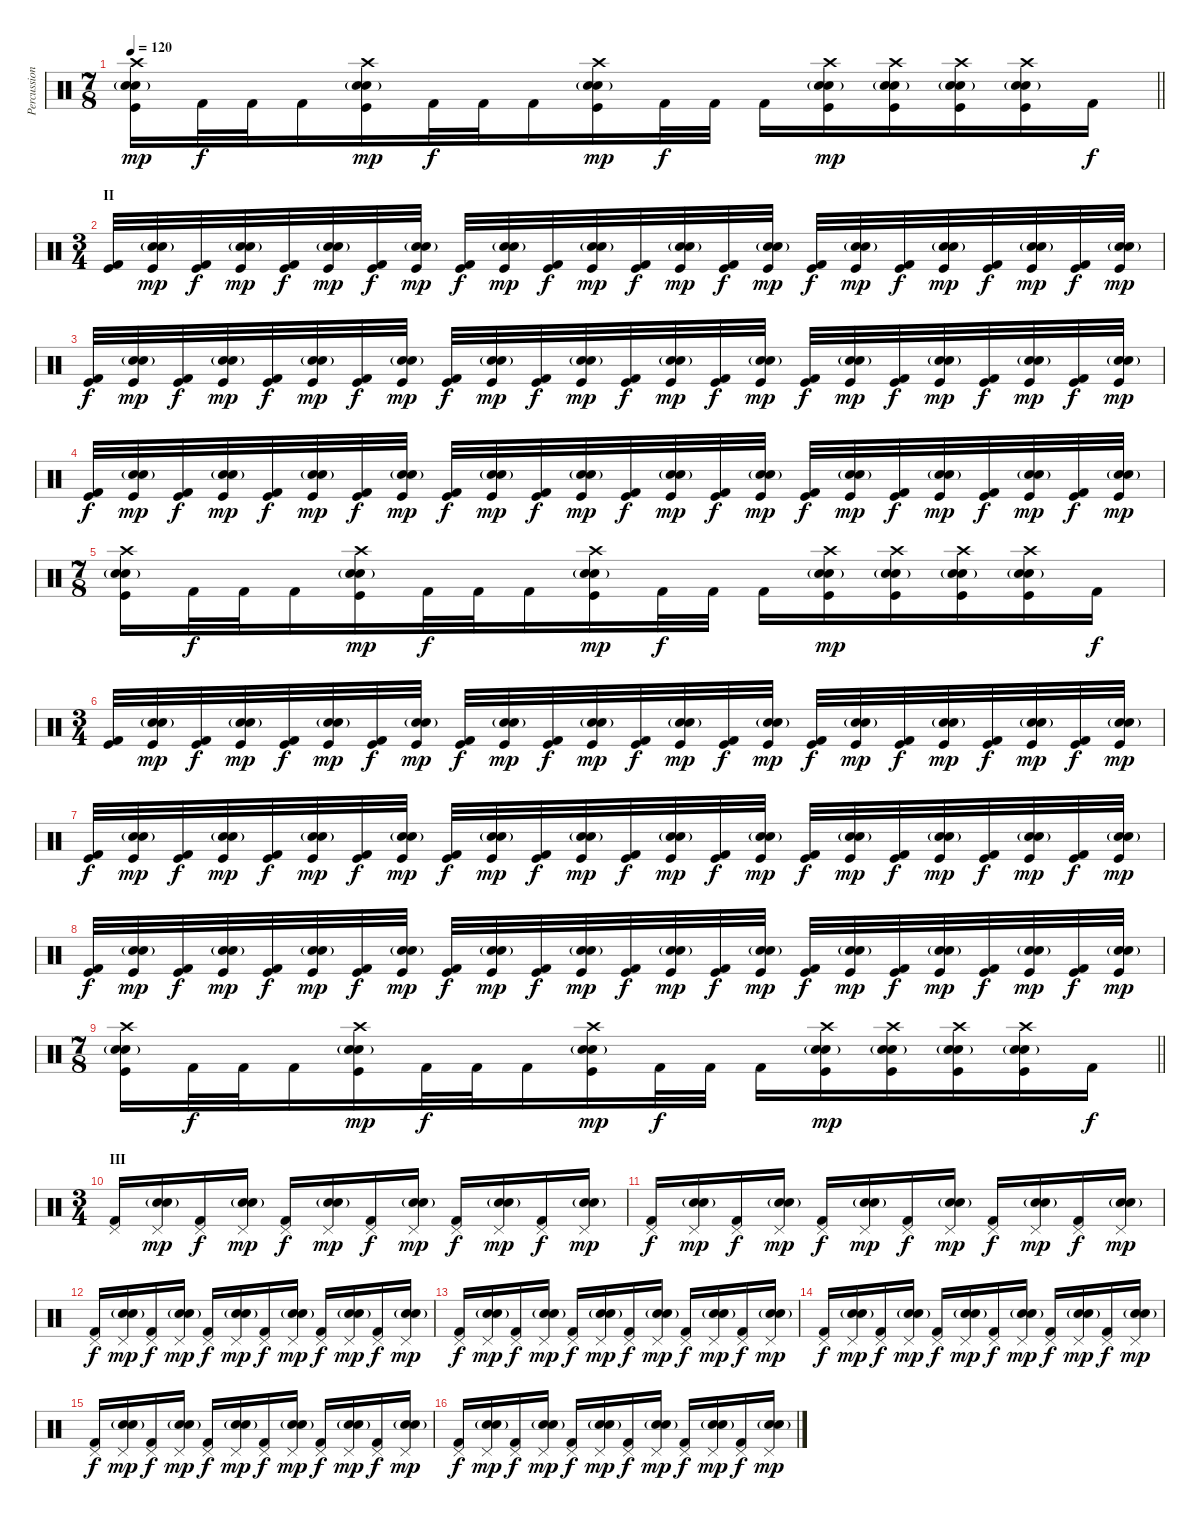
\track ("Percussion" "Percussion") {instrument percussion}
\staff {score}
\articulation defaults
\ts (7 8)
\tempo 120
\clef neutral
\barLineRight lightlight
\ks c
("Crash high (hit)" "Electric Snare (hit)" "Snare (hit) 2"{g} "Kick (hit)").16{dy mp} "Kick (hit) 2".32{dy f} "Kick (hit) 2".32 "Kick (hit) 2".16 ("Crash high (hit)" "Electric Snare (hit)" "Snare (hit) 2"{g} "Kick (hit)").16{dy mp} "Kick (hit) 2".32{dy f} "Kick (hit) 2".32 "Kick (hit) 2".16 ("Crash high (hit)" "Electric Snare (hit)" "Snare (hit) 2"{g} "Kick (hit)").16{dy mp} "Kick (hit) 2".32{dy f} "Kick (hit) 2".32 "Kick (hit) 2".16 ("Crash high (hit)" "Electric Snare (hit)" "Snare (hit) 2"{g} "Kick (hit)").16{dy mp} ("Crash high (hit)" "Electric Snare (hit)" "Snare (hit) 2"{g} "Kick (hit)").16 ("Crash high (hit)" "Electric Snare (hit)" "Snare (hit) 2"{g} "Kick (hit)").16 ("Crash high (hit)" "Electric Snare (hit)" "Snare (hit) 2"{g} "Kick (hit)").16 "Kick (hit) 2".16{dy f} |
\ts (3 4)
\section ("" "II")
("Kick (hit) 2" "Kick (hit)").32 ("Electric Snare (hit)" "Snare (hit) 2"{g} "Kick (hit)").32{dy mp} ("Kick (hit) 2" "Kick (hit)").32{dy f} ("Electric Snare (hit)" "Snare (hit) 2"{g} "Kick (hit)").32{dy mp} ("Kick (hit) 2" "Kick (hit)").32{dy f} ("Electric Snare (hit)" "Snare (hit) 2"{g} "Kick (hit)").32{dy mp} ("Kick (hit) 2" "Kick (hit)").32{dy f} ("Electric Snare (hit)" "Snare (hit) 2"{g} "Kick (hit)").32{dy mp} ("Kick (hit) 2" "Kick (hit)").32{dy f} ("Electric Snare (hit)" "Snare (hit) 2"{g} "Kick (hit)").32{dy mp} ("Kick (hit) 2" "Kick (hit)").32{dy f} ("Electric Snare (hit)" "Snare (hit) 2"{g} "Kick (hit)").32{dy mp} ("Kick (hit) 2" "Kick (hit)").32{dy f} ("Electric Snare (hit)" "Snare (hit) 2"{g} "Kick (hit)").32{dy mp} ("Kick (hit) 2" "Kick (hit)").32{dy f} ("Electric Snare (hit)" "Snare (hit) 2"{g} "Kick (hit)").32{dy mp} ("Kick (hit) 2" "Kick (hit)").32{dy f} ("Electric Snare (hit)" "Snare (hit) 2"{g} "Kick (hit)").32{dy mp} ("Kick (hit) 2" "Kick (hit)").32{dy f} ("Electric Snare (hit)" "Snare (hit) 2"{g} "Kick (hit)").32{dy mp} ("Kick (hit) 2" "Kick (hit)").32{dy f} ("Electric Snare (hit)" "Snare (hit) 2"{g} "Kick (hit)").32{dy mp} ("Kick (hit) 2" "Kick (hit)").32{dy f} ("Electric Snare (hit)" "Snare (hit) 2"{g} "Kick (hit)").32{dy mp} |
("Kick (hit) 2" "Kick (hit)").32{dy f} ("Electric Snare (hit)" "Snare (hit) 2"{g} "Kick (hit)").32{dy mp} ("Kick (hit) 2" "Kick (hit)").32{dy f} ("Electric Snare (hit)" "Snare (hit) 2"{g} "Kick (hit)").32{dy mp} ("Kick (hit) 2" "Kick (hit)").32{dy f} ("Electric Snare (hit)" "Snare (hit) 2"{g} "Kick (hit)").32{dy mp} ("Kick (hit) 2" "Kick (hit)").32{dy f} ("Electric Snare (hit)" "Snare (hit) 2"{g} "Kick (hit)").32{dy mp} ("Kick (hit) 2" "Kick (hit)").32{dy f} ("Electric Snare (hit)" "Snare (hit) 2"{g} "Kick (hit)").32{dy mp} ("Kick (hit) 2" "Kick (hit)").32{dy f} ("Electric Snare (hit)" "Snare (hit) 2"{g} "Kick (hit)").32{dy mp} ("Kick (hit) 2" "Kick (hit)").32{dy f} ("Electric Snare (hit)" "Snare (hit) 2"{g} "Kick (hit)").32{dy mp} ("Kick (hit) 2" "Kick (hit)").32{dy f} ("Electric Snare (hit)" "Snare (hit) 2"{g} "Kick (hit)").32{dy mp} ("Kick (hit) 2" "Kick (hit)").32{dy f} ("Electric Snare (hit)" "Snare (hit) 2"{g} "Kick (hit)").32{dy mp} ("Kick (hit) 2" "Kick (hit)").32{dy f} ("Electric Snare (hit)" "Snare (hit) 2"{g} "Kick (hit)").32{dy mp} ("Kick (hit) 2" "Kick (hit)").32{dy f} ("Electric Snare (hit)" "Snare (hit) 2"{g} "Kick (hit)").32{dy mp} ("Kick (hit) 2" "Kick (hit)").32{dy f} ("Electric Snare (hit)" "Snare (hit) 2"{g} "Kick (hit)").32{dy mp} |
("Kick (hit) 2" "Kick (hit)").32{dy f} ("Electric Snare (hit)" "Snare (hit) 2"{g} "Kick (hit)").32{dy mp} ("Kick (hit) 2" "Kick (hit)").32{dy f} ("Electric Snare (hit)" "Snare (hit) 2"{g} "Kick (hit)").32{dy mp} ("Kick (hit) 2" "Kick (hit)").32{dy f} ("Electric Snare (hit)" "Snare (hit) 2"{g} "Kick (hit)").32{dy mp} ("Kick (hit) 2" "Kick (hit)").32{dy f} ("Electric Snare (hit)" "Snare (hit) 2"{g} "Kick (hit)").32{dy mp} ("Kick (hit) 2" "Kick (hit)").32{dy f} ("Electric Snare (hit)" "Snare (hit) 2"{g} "Kick (hit)").32{dy mp} ("Kick (hit) 2" "Kick (hit)").32{dy f} ("Electric Snare (hit)" "Snare (hit) 2"{g} "Kick (hit)").32{dy mp} ("Kick (hit) 2" "Kick (hit)").32{dy f} ("Electric Snare (hit)" "Snare (hit) 2"{g} "Kick (hit)").32{dy mp} ("Kick (hit) 2" "Kick (hit)").32{dy f} ("Electric Snare (hit)" "Snare (hit) 2"{g} "Kick (hit)").32{dy mp} ("Kick (hit) 2" "Kick (hit)").32{dy f} ("Electric Snare (hit)" "Snare (hit) 2"{g} "Kick (hit)").32{dy mp} ("Kick (hit) 2" "Kick (hit)").32{dy f} ("Electric Snare (hit)" "Snare (hit) 2"{g} "Kick (hit)").32{dy mp} ("Kick (hit) 2" "Kick (hit)").32{dy f} ("Electric Snare (hit)" "Snare (hit) 2"{g} "Kick (hit)").32{dy mp} ("Kick (hit) 2" "Kick (hit)").32{dy f} ("Electric Snare (hit)" "Snare (hit) 2"{g} "Kick (hit)").32{dy mp} |
\ts (7 8)
("Crash high (hit)" "Electric Snare (hit)" "Snare (hit) 2"{g} "Kick (hit)").16 "Kick (hit) 2".32{dy f} "Kick (hit) 2".32 "Kick (hit) 2".16 ("Crash high (hit)" "Electric Snare (hit)" "Snare (hit) 2"{g} "Kick (hit)").16{dy mp} "Kick (hit) 2".32{dy f} "Kick (hit) 2".32 "Kick (hit) 2".16 ("Crash high (hit)" "Electric Snare (hit)" "Snare (hit) 2"{g} "Kick (hit)").16{dy mp} "Kick (hit) 2".32{dy f} "Kick (hit) 2".32 "Kick (hit) 2".16 ("Crash high (hit)" "Electric Snare (hit)" "Snare (hit) 2"{g} "Kick (hit)").16{dy mp} ("Crash high (hit)" "Electric Snare (hit)" "Snare (hit) 2"{g} "Kick (hit)").16 ("Crash high (hit)" "Electric Snare (hit)" "Snare (hit) 2"{g} "Kick (hit)").16 ("Crash high (hit)" "Electric Snare (hit)" "Snare (hit) 2"{g} "Kick (hit)").16 "Kick (hit) 2".16{dy f} |
\ts (3 4)
("Kick (hit) 2" "Kick (hit)").32 ("Electric Snare (hit)" "Snare (hit) 2"{g} "Kick (hit)").32{dy mp} ("Kick (hit) 2" "Kick (hit)").32{dy f} ("Electric Snare (hit)" "Snare (hit) 2"{g} "Kick (hit)").32{dy mp} ("Kick (hit) 2" "Kick (hit)").32{dy f} ("Electric Snare (hit)" "Snare (hit) 2"{g} "Kick (hit)").32{dy mp} ("Kick (hit) 2" "Kick (hit)").32{dy f} ("Electric Snare (hit)" "Snare (hit) 2"{g} "Kick (hit)").32{dy mp} ("Kick (hit) 2" "Kick (hit)").32{dy f} ("Electric Snare (hit)" "Snare (hit) 2"{g} "Kick (hit)").32{dy mp} ("Kick (hit) 2" "Kick (hit)").32{dy f} ("Electric Snare (hit)" "Snare (hit) 2"{g} "Kick (hit)").32{dy mp} ("Kick (hit) 2" "Kick (hit)").32{dy f} ("Electric Snare (hit)" "Snare (hit) 2"{g} "Kick (hit)").32{dy mp} ("Kick (hit) 2" "Kick (hit)").32{dy f} ("Electric Snare (hit)" "Snare (hit) 2"{g} "Kick (hit)").32{dy mp} ("Kick (hit) 2" "Kick (hit)").32{dy f} ("Electric Snare (hit)" "Snare (hit) 2"{g} "Kick (hit)").32{dy mp} ("Kick (hit) 2" "Kick (hit)").32{dy f} ("Electric Snare (hit)" "Snare (hit) 2"{g} "Kick (hit)").32{dy mp} ("Kick (hit) 2" "Kick (hit)").32{dy f} ("Electric Snare (hit)" "Snare (hit) 2"{g} "Kick (hit)").32{dy mp} ("Kick (hit) 2" "Kick (hit)").32{dy f} ("Electric Snare (hit)" "Snare (hit) 2"{g} "Kick (hit)").32{dy mp} |
("Kick (hit) 2" "Kick (hit)").32{dy f} ("Electric Snare (hit)" "Snare (hit) 2"{g} "Kick (hit)").32{dy mp} ("Kick (hit) 2" "Kick (hit)").32{dy f} ("Electric Snare (hit)" "Snare (hit) 2"{g} "Kick (hit)").32{dy mp} ("Kick (hit) 2" "Kick (hit)").32{dy f} ("Electric Snare (hit)" "Snare (hit) 2"{g} "Kick (hit)").32{dy mp} ("Kick (hit) 2" "Kick (hit)").32{dy f} ("Electric Snare (hit)" "Snare (hit) 2"{g} "Kick (hit)").32{dy mp} ("Kick (hit) 2" "Kick (hit)").32{dy f} ("Electric Snare (hit)" "Snare (hit) 2"{g} "Kick (hit)").32{dy mp} ("Kick (hit) 2" "Kick (hit)").32{dy f} ("Electric Snare (hit)" "Snare (hit) 2"{g} "Kick (hit)").32{dy mp} ("Kick (hit) 2" "Kick (hit)").32{dy f} ("Electric Snare (hit)" "Snare (hit) 2"{g} "Kick (hit)").32{dy mp} ("Kick (hit) 2" "Kick (hit)").32{dy f} ("Electric Snare (hit)" "Snare (hit) 2"{g} "Kick (hit)").32{dy mp} ("Kick (hit) 2" "Kick (hit)").32{dy f} ("Electric Snare (hit)" "Snare (hit) 2"{g} "Kick (hit)").32{dy mp} ("Kick (hit) 2" "Kick (hit)").32{dy f} ("Electric Snare (hit)" "Snare (hit) 2"{g} "Kick (hit)").32{dy mp} ("Kick (hit) 2" "Kick (hit)").32{dy f} ("Electric Snare (hit)" "Snare (hit) 2"{g} "Kick (hit)").32{dy mp} ("Kick (hit) 2" "Kick (hit)").32{dy f} ("Electric Snare (hit)" "Snare (hit) 2"{g} "Kick (hit)").32{dy mp} |
("Kick (hit) 2" "Kick (hit)").32{dy f} ("Electric Snare (hit)" "Snare (hit) 2"{g} "Kick (hit)").32{dy mp} ("Kick (hit) 2" "Kick (hit)").32{dy f} ("Electric Snare (hit)" "Snare (hit) 2"{g} "Kick (hit)").32{dy mp} ("Kick (hit) 2" "Kick (hit)").32{dy f} ("Electric Snare (hit)" "Snare (hit) 2"{g} "Kick (hit)").32{dy mp} ("Kick (hit) 2" "Kick (hit)").32{dy f} ("Electric Snare (hit)" "Snare (hit) 2"{g} "Kick (hit)").32{dy mp} ("Kick (hit) 2" "Kick (hit)").32{dy f} ("Electric Snare (hit)" "Snare (hit) 2"{g} "Kick (hit)").32{dy mp} ("Kick (hit) 2" "Kick (hit)").32{dy f} ("Electric Snare (hit)" "Snare (hit) 2"{g} "Kick (hit)").32{dy mp} ("Kick (hit) 2" "Kick (hit)").32{dy f} ("Electric Snare (hit)" "Snare (hit) 2"{g} "Kick (hit)").32{dy mp} ("Kick (hit) 2" "Kick (hit)").32{dy f} ("Electric Snare (hit)" "Snare (hit) 2"{g} "Kick (hit)").32{dy mp} ("Kick (hit) 2" "Kick (hit)").32{dy f} ("Electric Snare (hit)" "Snare (hit) 2"{g} "Kick (hit)").32{dy mp} ("Kick (hit) 2" "Kick (hit)").32{dy f} ("Electric Snare (hit)" "Snare (hit) 2"{g} "Kick (hit)").32{dy mp} ("Kick (hit) 2" "Kick (hit)").32{dy f} ("Electric Snare (hit)" "Snare (hit) 2"{g} "Kick (hit)").32{dy mp} ("Kick (hit) 2" "Kick (hit)").32{dy f} ("Electric Snare (hit)" "Snare (hit) 2"{g} "Kick (hit)").32{dy mp} |
\ts (7 8)
\barLineRight lightlight
("Crash high (hit)" "Electric Snare (hit)" "Snare (hit) 2"{g} "Kick (hit)").16 "Kick (hit) 2".32{dy f} "Kick (hit) 2".32 "Kick (hit) 2".16 ("Crash high (hit)" "Electric Snare (hit)" "Snare (hit) 2"{g} "Kick (hit)").16{dy mp} "Kick (hit) 2".32{dy f} "Kick (hit) 2".32 "Kick (hit) 2".16 ("Crash high (hit)" "Electric Snare (hit)" "Snare (hit) 2"{g} "Kick (hit)").16{dy mp} "Kick (hit) 2".32{dy f} "Kick (hit) 2".32 "Kick (hit) 2".16 ("Crash high (hit)" "Electric Snare (hit)" "Snare (hit) 2"{g} "Kick (hit)").16{dy mp} ("Crash high (hit)" "Electric Snare (hit)" "Snare (hit) 2"{g} "Kick (hit)").16 ("Crash high (hit)" "Electric Snare (hit)" "Snare (hit) 2"{g} "Kick (hit)").16 ("Crash high (hit)" "Electric Snare (hit)" "Snare (hit) 2"{g} "Kick (hit)").16 "Kick (hit) 2".16{dy f} |
\ts (3 4)
\section ("" "III")
("Kick (hit) 2" "Pedal Hi-Hat (hit)").16 ("Electric Snare (hit)" "Snare (hit) 2"{g} "Pedal Hi-Hat (hit)").16{dy mp} ("Kick (hit) 2" "Pedal Hi-Hat (hit)").16{dy f} ("Electric Snare (hit)" "Snare (hit) 2"{g} "Pedal Hi-Hat (hit)").16{dy mp} ("Kick (hit) 2" "Pedal Hi-Hat (hit)").16{dy f} ("Electric Snare (hit)" "Snare (hit) 2"{g} "Pedal Hi-Hat (hit)").16{dy mp} ("Kick (hit) 2" "Pedal Hi-Hat (hit)").16{dy f} ("Electric Snare (hit)" "Snare (hit) 2"{g} "Pedal Hi-Hat (hit)").16{dy mp} ("Kick (hit) 2" "Pedal Hi-Hat (hit)").16{dy f} ("Electric Snare (hit)" "Snare (hit) 2"{g} "Pedal Hi-Hat (hit)").16{dy mp} ("Kick (hit) 2" "Pedal Hi-Hat (hit)").16{dy f} ("Electric Snare (hit)" "Snare (hit) 2"{g} "Pedal Hi-Hat (hit)").16{dy mp} |
("Kick (hit) 2" "Pedal Hi-Hat (hit)").16{dy f} ("Electric Snare (hit)" "Snare (hit) 2"{g} "Pedal Hi-Hat (hit)").16{dy mp} ("Kick (hit) 2" "Pedal Hi-Hat (hit)").16{dy f} ("Electric Snare (hit)" "Snare (hit) 2"{g} "Pedal Hi-Hat (hit)").16{dy mp} ("Kick (hit) 2" "Pedal Hi-Hat (hit)").16{dy f} ("Electric Snare (hit)" "Snare (hit) 2"{g} "Pedal Hi-Hat (hit)").16{dy mp} ("Kick (hit) 2" "Pedal Hi-Hat (hit)").16{dy f} ("Electric Snare (hit)" "Snare (hit) 2"{g} "Pedal Hi-Hat (hit)").16{dy mp} ("Kick (hit) 2" "Pedal Hi-Hat (hit)").16{dy f} ("Electric Snare (hit)" "Snare (hit) 2"{g} "Pedal Hi-Hat (hit)").16{dy mp} ("Kick (hit) 2" "Pedal Hi-Hat (hit)").16{dy f} ("Electric Snare (hit)" "Snare (hit) 2"{g} "Pedal Hi-Hat (hit)").16{dy mp} |
("Kick (hit) 2" "Pedal Hi-Hat (hit)").16{dy f} ("Electric Snare (hit)" "Snare (hit) 2"{g} "Pedal Hi-Hat (hit)").16{dy mp} ("Kick (hit) 2" "Pedal Hi-Hat (hit)").16{dy f} ("Electric Snare (hit)" "Snare (hit) 2"{g} "Pedal Hi-Hat (hit)").16{dy mp} ("Kick (hit) 2" "Pedal Hi-Hat (hit)").16{dy f} ("Electric Snare (hit)" "Snare (hit) 2"{g} "Pedal Hi-Hat (hit)").16{dy mp} ("Kick (hit) 2" "Pedal Hi-Hat (hit)").16{dy f} ("Electric Snare (hit)" "Snare (hit) 2"{g} "Pedal Hi-Hat (hit)").16{dy mp} ("Kick (hit) 2" "Pedal Hi-Hat (hit)").16{dy f} ("Electric Snare (hit)" "Snare (hit) 2"{g} "Pedal Hi-Hat (hit)").16{dy mp} ("Kick (hit) 2" "Pedal Hi-Hat (hit)").16{dy f} ("Electric Snare (hit)" "Snare (hit) 2"{g} "Pedal Hi-Hat (hit)").16{dy mp} |
("Kick (hit) 2" "Pedal Hi-Hat (hit)").16{dy f} ("Electric Snare (hit)" "Snare (hit) 2"{g} "Pedal Hi-Hat (hit)").16{dy mp} ("Kick (hit) 2" "Pedal Hi-Hat (hit)").16{dy f} ("Electric Snare (hit)" "Snare (hit) 2"{g} "Pedal Hi-Hat (hit)").16{dy mp} ("Kick (hit) 2" "Pedal Hi-Hat (hit)").16{dy f} ("Electric Snare (hit)" "Snare (hit) 2"{g} "Pedal Hi-Hat (hit)").16{dy mp} ("Kick (hit) 2" "Pedal Hi-Hat (hit)").16{dy f} ("Electric Snare (hit)" "Snare (hit) 2"{g} "Pedal Hi-Hat (hit)").16{dy mp} ("Kick (hit) 2" "Pedal Hi-Hat (hit)").16{dy f} ("Electric Snare (hit)" "Snare (hit) 2"{g} "Pedal Hi-Hat (hit)").16{dy mp} ("Kick (hit) 2" "Pedal Hi-Hat (hit)").16{dy f} ("Electric Snare (hit)" "Snare (hit) 2"{g} "Pedal Hi-Hat (hit)").16{dy mp} |
("Kick (hit) 2" "Pedal Hi-Hat (hit)").16{dy f} ("Electric Snare (hit)" "Snare (hit) 2"{g} "Pedal Hi-Hat (hit)").16{dy mp} ("Kick (hit) 2" "Pedal Hi-Hat (hit)").16{dy f} ("Electric Snare (hit)" "Snare (hit) 2"{g} "Pedal Hi-Hat (hit)").16{dy mp} ("Kick (hit) 2" "Pedal Hi-Hat (hit)").16{dy f} ("Electric Snare (hit)" "Snare (hit) 2"{g} "Pedal Hi-Hat (hit)").16{dy mp} ("Kick (hit) 2" "Pedal Hi-Hat (hit)").16{dy f} ("Electric Snare (hit)" "Snare (hit) 2"{g} "Pedal Hi-Hat (hit)").16{dy mp} ("Kick (hit) 2" "Pedal Hi-Hat (hit)").16{dy f} ("Electric Snare (hit)" "Snare (hit) 2"{g} "Pedal Hi-Hat (hit)").16{dy mp} ("Kick (hit) 2" "Pedal Hi-Hat (hit)").16{dy f} ("Electric Snare (hit)" "Snare (hit) 2"{g} "Pedal Hi-Hat (hit)").16{dy mp} |
("Kick (hit) 2" "Pedal Hi-Hat (hit)").16{dy f} ("Electric Snare (hit)" "Snare (hit) 2"{g} "Pedal Hi-Hat (hit)").16{dy mp} ("Kick (hit) 2" "Pedal Hi-Hat (hit)").16{dy f} ("Electric Snare (hit)" "Snare (hit) 2"{g} "Pedal Hi-Hat (hit)").16{dy mp} ("Kick (hit) 2" "Pedal Hi-Hat (hit)").16{dy f} ("Electric Snare (hit)" "Snare (hit) 2"{g} "Pedal Hi-Hat (hit)").16{dy mp} ("Kick (hit) 2" "Pedal Hi-Hat (hit)").16{dy f} ("Electric Snare (hit)" "Snare (hit) 2"{g} "Pedal Hi-Hat (hit)").16{dy mp} ("Kick (hit) 2" "Pedal Hi-Hat (hit)").16{dy f} ("Electric Snare (hit)" "Snare (hit) 2"{g} "Pedal Hi-Hat (hit)").16{dy mp} ("Kick (hit) 2" "Pedal Hi-Hat (hit)").16{dy f} ("Electric Snare (hit)" "Snare (hit) 2"{g} "Pedal Hi-Hat (hit)").16{dy mp} |
("Kick (hit) 2" "Pedal Hi-Hat (hit)").16{dy f} ("Electric Snare (hit)" "Snare (hit) 2"{g} "Pedal Hi-Hat (hit)").16{dy mp} ("Kick (hit) 2" "Pedal Hi-Hat (hit)").16{dy f} ("Electric Snare (hit)" "Snare (hit) 2"{g} "Pedal Hi-Hat (hit)").16{dy mp} ("Kick (hit) 2" "Pedal Hi-Hat (hit)").16{dy f} ("Electric Snare (hit)" "Snare (hit) 2"{g} "Pedal Hi-Hat (hit)").16{dy mp} ("Kick (hit) 2" "Pedal Hi-Hat (hit)").16{dy f} ("Electric Snare (hit)" "Snare (hit) 2"{g} "Pedal Hi-Hat (hit)").16{dy mp} ("Kick (hit) 2" "Pedal Hi-Hat (hit)").16{dy f} ("Electric Snare (hit)" "Snare (hit) 2"{g} "Pedal Hi-Hat (hit)").16{dy mp} ("Kick (hit) 2" "Pedal Hi-Hat (hit)").16{dy f} ("Electric Snare (hit)" "Snare (hit) 2"{g} "Pedal Hi-Hat (hit)").16{dy mp}
